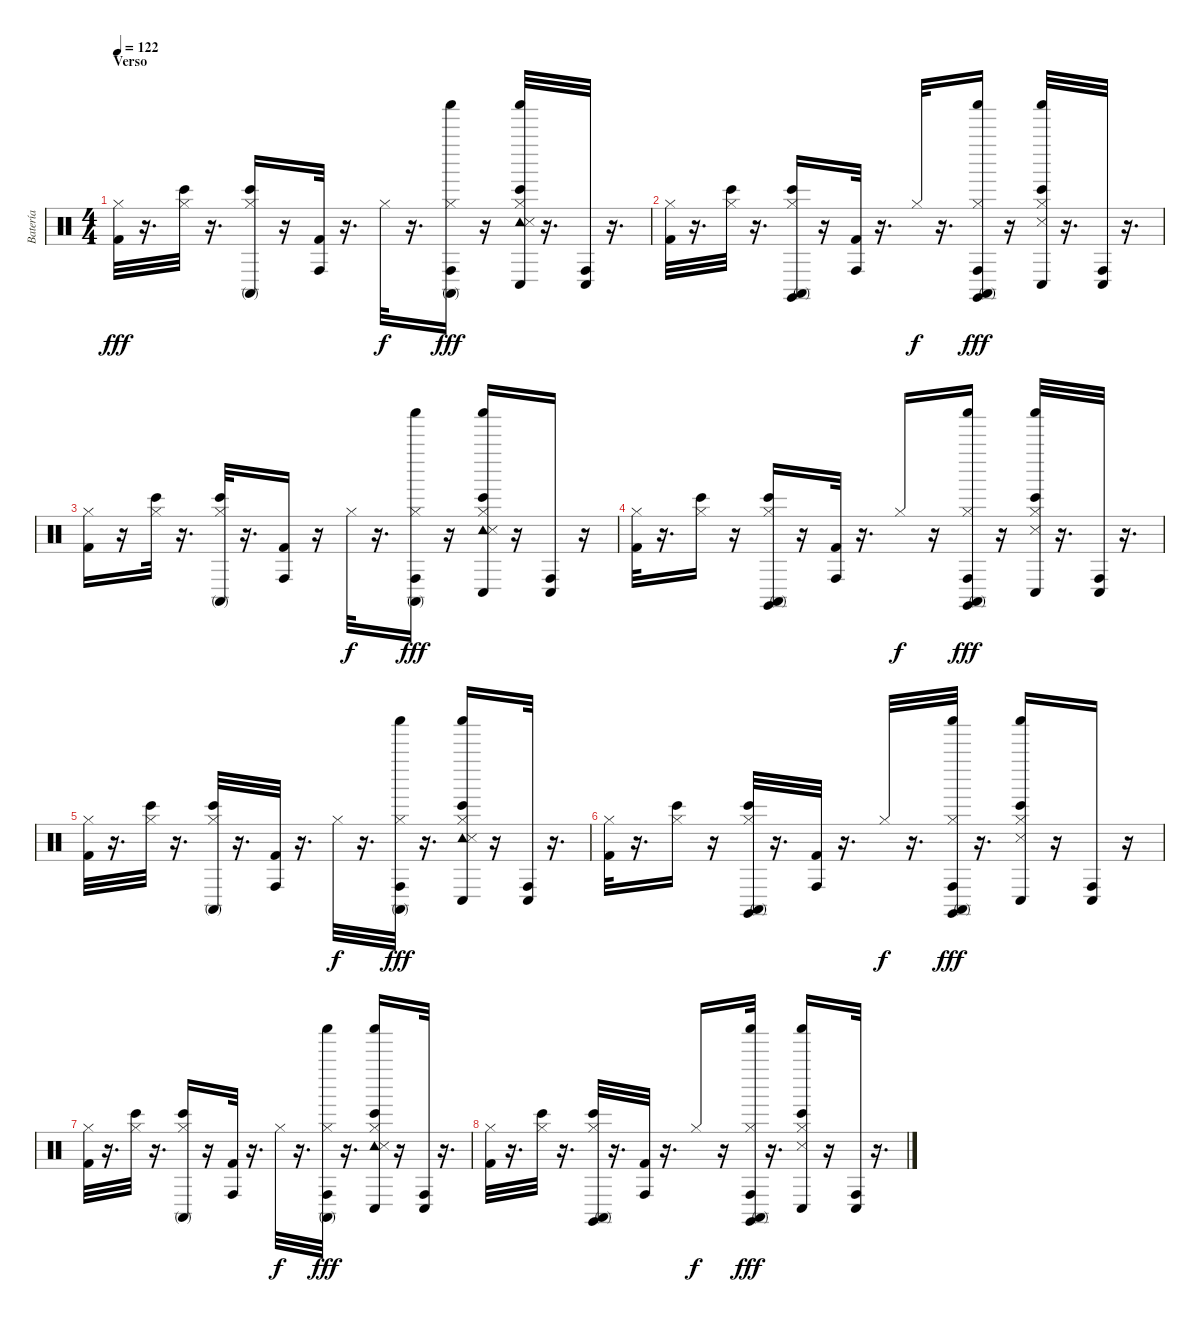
\track ("Batería" "Batería") {instrument percussion}
\staff {score}
\articulation defaults
\ts (4 4)
\section ("" "Verso")
\tempo 122
\clef neutral
\ks c
("Hi-Hat (closed)" "Kick (hit) 2").32{dy fff} r.16{d} ("Bongo High (hit)" "Hi-Hat (closed)").32 r.16{d} ("Bongo High (hit)" "Conga high (mute)" "Hi-Hat (closed)").16 r.16 ("Conga high (hit)" "Kick (hit) 2").32 r.16{d} "Hi-Hat (closed)".32{dy f} r.16{d} ("Conga high (hit)" "Conga high (mute)" "Shaker (hit)" "Hi-Hat (closed)").16{dy fff} r.16 ("Tambourine (hit)" "Snare (side stick) 3" "Bongo High (hit)" "Conga low (hit)" "Shaker (hit)" "Hi-Hat (closed)").32 r.16{d} ("Conga high (hit)" "Conga low (hit)").32 r.16{d} |
("Hi-Hat (closed)" "Kick (hit) 2").32 r.16{d} ("Bongo High (hit)" "Hi-Hat (closed)").32 r.16{d} ("Claves (hit)" "Bongo High (hit)" "Conga high (mute)" "Hi-Hat (closed)").16 r.16 ("Conga high (hit)" "Kick (hit) 2").32 r.16{d} "Hi-Hat (closed)".32{dy f} r.16{d} ("Claves (hit)" "Conga high (hit)" "Conga high (mute)" "Shaker (hit)" "Hi-Hat (closed)").16{dy fff} r.16 ("Snare (side stick) 3" "Bongo High (hit)" "Conga low (hit)" "Shaker (hit)" "Hi-Hat (closed)").32 r.16{d} ("Conga high (hit)" "Conga low (hit)").32 r.16{d} |
("Hi-Hat (closed)" "Kick (hit) 2").16 r.16 ("Bongo High (hit)" "Hi-Hat (closed)").32 r.16{d} ("Bongo High (hit)" "Conga high (mute)" "Hi-Hat (closed)").32 r.16{d} ("Conga high (hit)" "Kick (hit) 2").16 r.16 "Hi-Hat (closed)".32{dy f} r.16{d} ("Conga high (hit)" "Conga high (mute)" "Shaker (hit)" "Hi-Hat (closed)").16{dy fff} r.16 ("Tambourine (hit)" "Snare (side stick) 3" "Bongo High (hit)" "Conga low (hit)" "Shaker (hit)" "Hi-Hat (closed)").16 r.16 ("Conga high (hit)" "Conga low (hit)").16 r.16 |
("Hi-Hat (closed)" "Kick (hit) 2").32 r.16{d} ("Bongo High (hit)" "Hi-Hat (closed)").16 r.16 ("Claves (hit)" "Bongo High (hit)" "Conga high (mute)" "Hi-Hat (closed)").16 r.16 ("Conga high (hit)" "Kick (hit) 2").32 r.16{d} "Hi-Hat (closed)".16{dy f} r.16 ("Claves (hit)" "Conga high (hit)" "Conga high (mute)" "Shaker (hit)" "Hi-Hat (closed)").16{dy fff} r.16 ("Snare (side stick) 3" "Bongo High (hit)" "Conga low (hit)" "Shaker (hit)" "Hi-Hat (closed)").32 r.16{d} ("Conga high (hit)" "Conga low (hit)").32 r.16{d} |
("Hi-Hat (closed)" "Kick (hit) 2").32 r.16{d} ("Bongo High (hit)" "Hi-Hat (closed)").32 r.16{d} ("Bongo High (hit)" "Conga high (mute)" "Hi-Hat (closed)").32 r.16{d} ("Conga high (hit)" "Kick (hit) 2").32 r.16{d} "Hi-Hat (closed)".32{dy f} r.16{d} ("Conga high (hit)" "Conga high (mute)" "Shaker (hit)" "Hi-Hat (closed)").32{dy fff} r.16{d} ("Tambourine (hit)" "Snare (side stick) 3" "Bongo High (hit)" "Conga low (hit)" "Shaker (hit)" "Hi-Hat (closed)").16 r.16 ("Conga high (hit)" "Conga low (hit)").32 r.16{d} |
("Hi-Hat (closed)" "Kick (hit) 2").32 r.16{d} ("Bongo High (hit)" "Hi-Hat (closed)").16 r.16 ("Claves (hit)" "Bongo High (hit)" "Conga high (mute)" "Hi-Hat (closed)").32 r.16{d} ("Conga high (hit)" "Kick (hit) 2").32 r.16{d} "Hi-Hat (closed)".32{dy f} r.16{d} ("Claves (hit)" "Conga high (hit)" "Conga high (mute)" "Shaker (hit)" "Hi-Hat (closed)").32{dy fff} r.16{d} ("Snare (side stick) 3" "Bongo High (hit)" "Conga low (hit)" "Shaker (hit)" "Hi-Hat (closed)").16 r.16 ("Conga high (hit)" "Conga low (hit)").16 r.16 |
("Hi-Hat (closed)" "Kick (hit) 2").32 r.16{d} ("Bongo High (hit)" "Hi-Hat (closed)").32 r.16{d} ("Bongo High (hit)" "Conga high (mute)" "Hi-Hat (closed)").16 r.16 ("Conga high (hit)" "Kick (hit) 2").32 r.16{d} "Hi-Hat (closed)".32{dy f} r.16{d} ("Conga high (hit)" "Conga high (mute)" "Shaker (hit)" "Hi-Hat (closed)").32{dy fff} r.16{d} ("Tambourine (hit)" "Snare (side stick) 3" "Bongo High (hit)" "Conga low (hit)" "Shaker (hit)" "Hi-Hat (closed)").16 r.16 ("Conga high (hit)" "Conga low (hit)").32 r.16{d} |
("Hi-Hat (closed)" "Kick (hit) 2").32 r.16{d} ("Bongo High (hit)" "Hi-Hat (closed)").32 r.16{d} ("Claves (hit)" "Bongo High (hit)" "Conga high (mute)" "Hi-Hat (closed)").32 r.16{d} ("Conga high (hit)" "Kick (hit) 2").32 r.16{d} "Hi-Hat (closed)".16{dy f} r.16 ("Claves (hit)" "Conga high (hit)" "Conga high (mute)" "Shaker (hit)" "Hi-Hat (closed)").32{dy fff} r.16{d} ("Snare (side stick) 3" "Bongo High (hit)" "Conga low (hit)" "Shaker (hit)" "Hi-Hat (closed)").16 r.16 ("Conga high (hit)" "Conga low (hit)").32 r.16{d}
